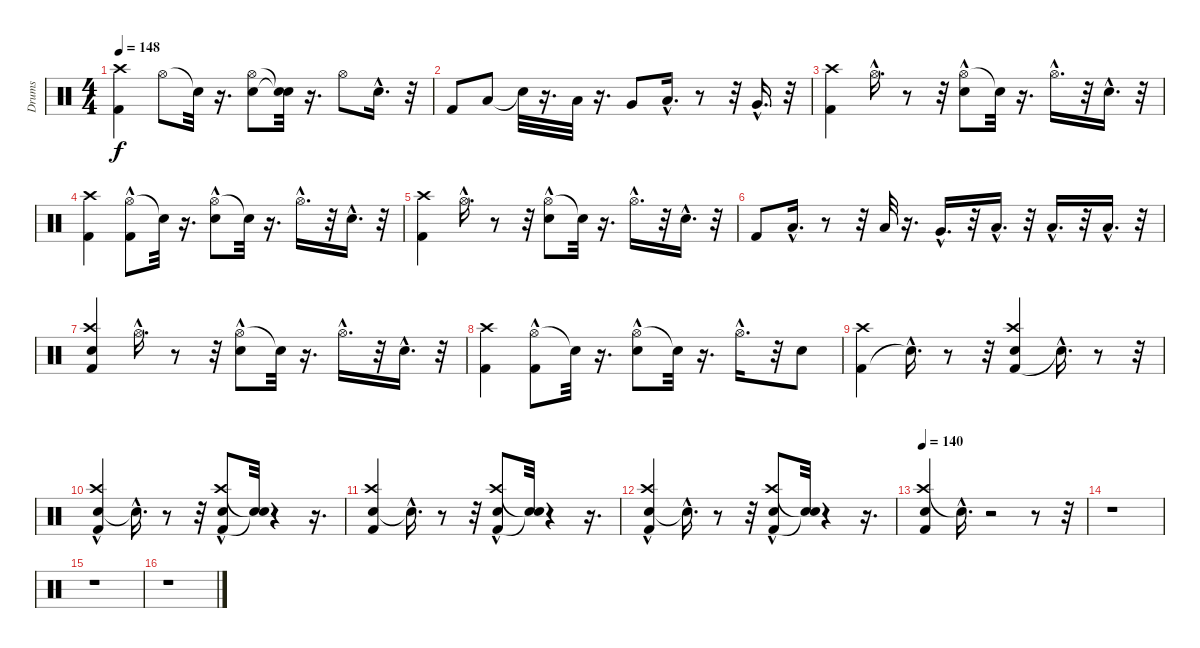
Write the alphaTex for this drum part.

\track ("Drums" "Drums") {instrument percussion}
\staff {score}
\articulation defaults
\ts (4 4)
\tempo 148
\clef neutral
\ks c
("Kick (hit) 2" "Crash high (hit)").4{dy f} "Hi-Hat (open)".8 "Snare (hit)"{t}.32 r.16{d} ("Hi-Hat (open)" "Snare (hit) 2").8 ("Snare (hit)"{t} "Snare (hit)"{t}).32 r.16{d} "Hi-Hat (open)".8 "Snare (hit) 2"{hac}.16{d} r.32 |
"Kick (hit) 2".8 "Low Tom (hit)".8 "Snare (hit)"{t}.32 r.16{d} "Low Tom (hit)".32 r.16{d} "Very Low Tom (hit)".8 "Low Tom (hit)"{hac}.16{d} r.8 r.32 "Very Low Tom (hit)"{hac}.16{d} r.32 |
("Crash high (hit)" "Kick (hit) 2").4 "Hi-Hat (open)"{hac}.16{d} r.8 r.32 ("Hi-Hat (open)"{hac} "Snare (hit) 2").8 "Snare (hit)"{t}.32 r.16{d} "Hi-Hat (open)"{hac}.16{d} r.32 "Snare (hit) 2"{hac}.16{d} r.32 |
("Kick (hit) 2" "Crash high (hit)").4 ("Hi-Hat (open)"{hac} "Kick (hit) 2").8 "Snare (hit)"{t}.32 r.16{d} ("Hi-Hat (open)"{hac} "Snare (hit) 2").8 "Snare (hit)"{t}.32 r.16{d} "Hi-Hat (open)"{hac}.16{d} r.32 "Snare (hit) 2"{hac}.16{d} r.32 |
("Crash high (hit)" "Kick (hit) 2").4 "Hi-Hat (open)"{hac}.16{d} r.8 r.32 ("Hi-Hat (open)"{hac} "Snare (hit) 2").8 "Snare (hit)"{t}.32 r.16{d} "Hi-Hat (open)"{hac}.16{d} r.32 "Snare (hit) 2"{hac}.16{d} r.32 |
"Kick (hit) 2".8 "Low Tom (hit)"{hac}.16{d} r.8 r.32 "Low Tom (hit)".32 r.16{d} "Very Low Tom (hit)"{hac}.16{d} r.32 "Low Floor Tom (hit)"{hac}.16{d} r.32 "Low Floor Tom (hit)"{hac}.16{d} r.32 "Low Tom (hit)"{hac}.16{d} r.32 |
("Snare (hit) 2" "Crash high (hit)" "Kick (hit) 2").4 "Hi-Hat (open)"{hac}.16{d} r.8 r.32 ("Hi-Hat (open)"{hac} "Snare (hit) 2").8 "Snare (hit)"{t}.32 r.16{d} "Hi-Hat (open)"{hac}.16{d} r.32 "Snare (hit) 2"{hac}.16{d} r.32 |
("Kick (hit) 2" "Crash high (hit)").4 ("Hi-Hat (open)"{hac} "Kick (hit) 2").8 "Snare (hit)"{t}.32 r.16{d} ("Hi-Hat (open)"{hac} "Snare (hit) 2").8 "Snare (hit)"{t}.32 r.16{d} "Hi-Hat (open)"{hac}.16{d} r.32 "Snare (hit) 2".8 |
("Kick (hit) 2" "Crash high (hit)").4 "Snare (hit)"{hac t}.16{d} r.8 r.32 ("Kick (hit) 2" "Snare (hit) 2" "Crash high (hit)").4 "Snare (hit)"{hac t}.16{d} r.8 r.32 |
("Snare (hit) 2"{hac} "Crash high (hit)" "Kick (hit) 2").4 "Snare (hit)"{hac t}.16{d} r.8 r.32 ("Kick (hit) 2" "Crash high (hit)"{hac} "Snare (hit) 2").8 ("Snare (hit)"{t} "Snare (hit)"{t}).32 r.4 r.16{d} |
("Snare (hit) 2" "Crash high (hit)" "Kick (hit) 2").4 "Snare (hit)"{hac t}.16{d} r.8 r.32 ("Kick (hit) 2" "Crash high (hit)"{hac} "Snare (hit) 2").8 ("Snare (hit)"{t} "Snare (hit)"{t}).32 r.4 r.16{d} |
("Snare (hit) 2"{hac} "Kick (hit) 2" "Crash high (hit)").4 "Snare (hit)"{hac t}.16{d} r.8 r.32 ("Kick (hit) 2" "Crash high (hit)"{hac} "Snare (hit) 2").8 ("Snare (hit)"{t} "Snare (hit)"{t}).32 r.4 r.16{d} |
\tempo 140
("Crash high (hit)" "Kick (hit) 2" "Snare (hit) 2").4 "Snare (hit)"{hac t}.16{d} r.2 r.8 r.32 |
r.1 |
r.1 |
r.1
